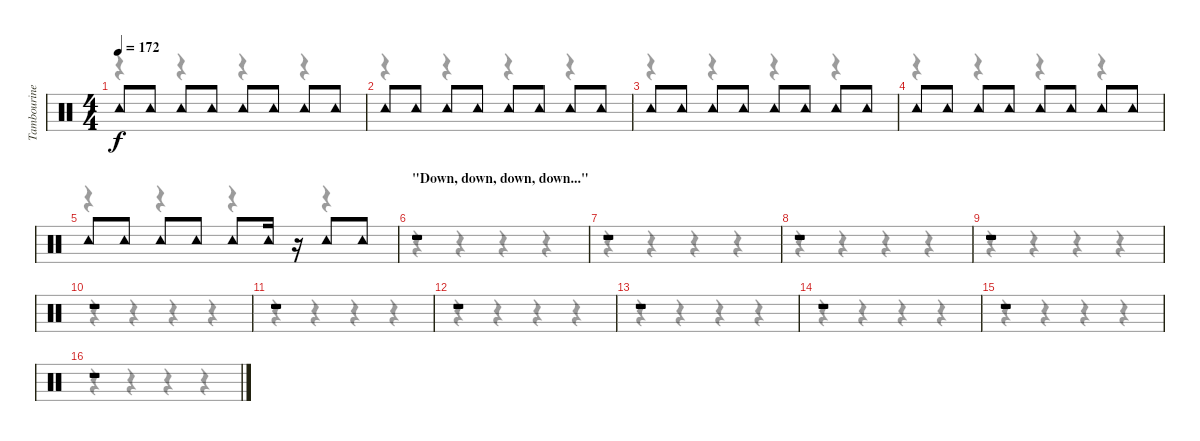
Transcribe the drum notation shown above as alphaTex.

\track ("Tambourine" "Tambourine") {instrument percussion}
\staff {score}
\articulation defaults
\voice
\ts (4 4)
\tempo 172
\clef neutral
\ks c "Tambourine (hit)".8{dy f} "Tambourine (hit)".8 "Tambourine (hit)".8 "Tambourine (hit)".8 "Tambourine (hit)".8 "Tambourine (hit)".8 "Tambourine (hit)".8 "Tambourine (hit)".8
|
"Tambourine (hit)".8 "Tambourine (hit)".8 "Tambourine (hit)".8 "Tambourine (hit)".8 "Tambourine (hit)".8 "Tambourine (hit)".8 "Tambourine (hit)".8 "Tambourine (hit)".8 |
"Tambourine (hit)".8 "Tambourine (hit)".8 "Tambourine (hit)".8 "Tambourine (hit)".8 "Tambourine (hit)".8 "Tambourine (hit)".8 "Tambourine (hit)".8 "Tambourine (hit)".8 |
"Tambourine (hit)".8 "Tambourine (hit)".8 "Tambourine (hit)".8 "Tambourine (hit)".8 "Tambourine (hit)".8 "Tambourine (hit)".8 "Tambourine (hit)".8 "Tambourine (hit)".8 |
"Tambourine (hit)".8 "Tambourine (hit)".8 "Tambourine (hit)".8 "Tambourine (hit)".8 "Tambourine (hit)".8 "Tambourine (hit)".16 r.16 "Tambourine (hit)".8 "Tambourine (hit)".8 |
\section ("" "\"Down, down, down, down...\"")
r.1 |
r.1 |
r.1 |
r.1 |
r.1 |
r.1 |
r.1 |
r.1 |
r.1 |
r.1 |
r.1
\voice
\clef neutral
\ottava regular
\simile none
\ks c
r.4{dy f} r.4 r.4 r.4 |
r.4 r.4 r.4 r.4 |
r.4 r.4 r.4 r.4 |
r.4 r.4 r.4 r.4 |
r.4 r.4 r.4 r.4 |
r.4 r.4 r.4 r.4 |
r.4 r.4 r.4 r.4 |
r.4 r.4 r.4 r.4 |
r.4 r.4 r.4 r.4 |
r.4 r.4 r.4 r.4 |
r.4 r.4 r.4 r.4 |
r.4 r.4 r.4 r.4 |
r.4 r.4 r.4 r.4 |
r.4 r.4 r.4 r.4 |
r.4 r.4 r.4 r.4 |
r.4 r.4 r.4 r.4
